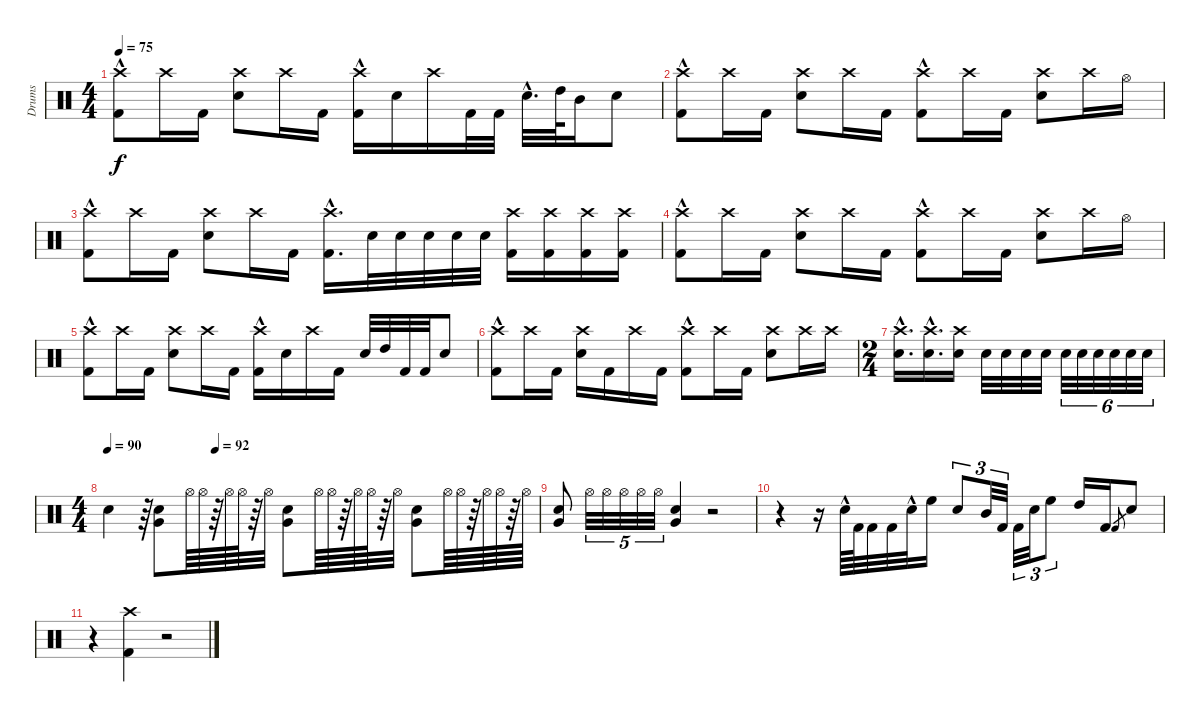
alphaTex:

\track ("Drums" "Drums") {instrument percussion}
\staff {score}
\articulation defaults
\ts (4 4)
\tempo 75
\clef neutral
\ks c
("Crash high (hit)" "Kick (hit) 2"{hac}).8{dy f} "Crash high (hit)".16 "Kick (hit) 2".16 ("Crash high (hit)" "Snare (hit) 2").8 "Crash high (hit)".16 "Kick (hit) 2".16 ("Crash high (hit)" "Kick (hit) 2"{hac}).16 "Snare (hit) 2".16 "Crash high (hit)".16 "Kick (hit) 2".32 "Kick (hit) 2".32 "Snare (hit) 2"{hac}.32{d} "High Tom (hit)".64 "Mid Tom (hit)".16 "Snare (hit) 2".8 |
("Crash high (hit)" "Kick (hit) 2"{hac}).8 "Crash high (hit)".16 "Kick (hit) 2".16 ("Crash high (hit)" "Snare (hit) 2").8 "Crash high (hit)".16 "Kick (hit) 2".16 ("Crash high (hit)" "Kick (hit) 2"{hac}).8 "Crash high (hit)".16 "Kick (hit) 2".16 ("Crash high (hit)" "Snare (hit) 2").8 "Crash high (hit)".16 "Hi-Hat (open)".16 |
("Crash high (hit)" "Kick (hit) 2"{hac}).8 "Crash high (hit)".16 "Kick (hit) 2".16 ("Crash high (hit)" "Snare (hit) 2").8 "Crash high (hit)".16 "Kick (hit) 2".16 ("Kick (hit) 2" "Crash high (hit)"{hac}).16{d} "Snare (hit) 2".32 "Snare (hit) 2".32 "Snare (hit) 2".32 "Snare (hit) 2".32 "Snare (hit) 2".32 ("Kick (hit) 2" "Crash high (hit)").16 ("Kick (hit) 2" "Crash high (hit)").16 ("Kick (hit) 2" "Crash high (hit)").16 ("Kick (hit) 2" "Crash high (hit)").16 |
("Crash high (hit)" "Kick (hit) 2"{hac}).8 "Crash high (hit)".16 "Kick (hit) 2".16 ("Crash high (hit)" "Snare (hit) 2").8 "Crash high (hit)".16 "Kick (hit) 2".16 ("Crash high (hit)" "Kick (hit) 2"{hac}).8 "Crash high (hit)".16 "Kick (hit) 2".16 ("Crash high (hit)" "Snare (hit) 2").8 "Crash high (hit)".16 "Hi-Hat (open)".16 |
("Crash high (hit)" "Kick (hit) 2"{hac}).8 "Crash high (hit)".16 "Kick (hit) 2".16 ("Crash high (hit)" "Snare (hit) 2").8 "Crash high (hit)".16 "Kick (hit) 2".16 ("Crash high (hit)" "Kick (hit) 2"{hac}).16 "Snare (hit) 2".16 "Crash high (hit)".16 "Kick (hit) 2".16 "Snare (hit) 2".32 "High Tom (hit)".32 "Kick (hit) 2".32 "Kick (hit) 2".32 "Snare (hit) 2".8 |
("Crash high (hit)" "Kick (hit) 2"{hac}).8 "Crash high (hit)".16 "Kick (hit) 2".16 ("Crash high (hit)" "Snare (hit) 2").16 "Kick (hit) 2".16 "Crash high (hit)".16 "Kick (hit) 2".16 ("Crash high (hit)" "Kick (hit) 2"{hac}).8 "Crash high (hit)".16 "Kick (hit) 2".16 ("Crash high (hit)" "Snare (hit) 2").8 "Crash high (hit)".16 "Crash high (hit)".16 |
\ts (2 4)
("Snare (hit) 2"{hac} "Crash high (hit)"{hac}).16{d} ("Snare (hit) 2"{hac} "Crash high (hit)"{hac}).16{d} ("Snare (hit) 2" "Crash high (hit)").16 "Snare (hit) 2".32 "Snare (hit) 2".32 "Snare (hit) 2".32 "Snare (hit) 2".32 "Snare (hit) 2".32{tu (6 4)} "Snare (hit) 2".32{tu (6 4)} "Snare (hit) 2".32{tu (6 4)} "Snare (hit) 2".32{tu (6 4)} "Snare (hit) 2".32{tu (6 4)} "Snare (hit) 2".32{tu (6 4)} |
\ts (4 4)
\tempo 90
\tempo (92 0.25)
"Snare (hit) 2".4 r.64 ("Very Low Tom (hit)" "Snare (hit) 2").8 "Hi-Hat (open)".64 "Hi-Hat (open)".64 r.64 "Hi-Hat (open)".64 "Hi-Hat (open)".64 r.64 "Hi-Hat (open)".32 ("Very Low Tom (hit)" "Snare (hit) 2").8 "Hi-Hat (open)".64 "Hi-Hat (open)".64 r.64 "Hi-Hat (open)".64 "Hi-Hat (open)".64 r.64 "Hi-Hat (open)".32 ("Very Low Tom (hit)" "Snare (hit) 2").8 "Hi-Hat (open)".64 "Hi-Hat (open)".64 r.64 "Hi-Hat (open)".64 "Hi-Hat (open)".64 r.64 "Hi-Hat (open)".64 |
("Very Low Tom (hit)" "Snare (hit) 2").8 "Hi-Hat (open)".32{tu (5 4)} "Hi-Hat (open)".32{tu (5 4)} "Hi-Hat (open)".32{tu (5 4)} "Hi-Hat (open)".32{tu (5 4)} "Hi-Hat (open)".32{tu (5 4)} ("Very Low Tom (hit)" "Snare (hit) 2").4 r.2 |
r.4 r.16 "Snare (hit) 2"{hac}.64 "Kick (hit) 2".64 "Kick (hit) 2".32 "Kick (hit) 2".32 "Snare (hit) 2"{hac}.32 "High Floor Tom (hit)".16 "Snare (hit) 2".8{tu (3 2)} "Mid Tom (hit)".32{tu (3 2)} "Kick (hit) 2".32{tu (3 2)} "Kick (hit) 2".32{tu (3 2)} "Snare (hit) 2".32{tu (3 2)} "High Floor Tom (hit)".8{tu (3 2)} "High Tom (hit)".16 "Kick (hit) 2".16 "Kick (hit) 2".8{gr} "Snare (hit) 2".8 |
r.4 ("Kick (hit) 2" "Crash high (hit)").4 r.2
